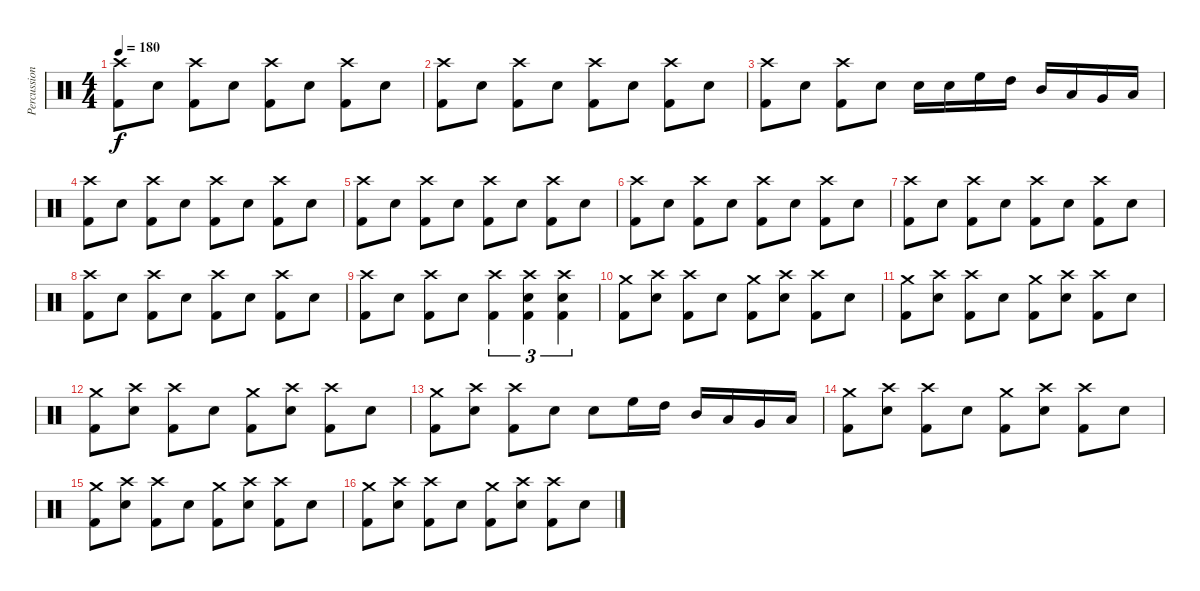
\track ("Percussion" "Percussion") {instrument percussion}
\staff {score}
\articulation defaults
\ts (4 4)
\tempo 180
\clef neutral
\ks c
("Crash high (hit)" "Kick (hit) 2").8{dy f} "Electric Snare (hit)".8 ("Crash high (hit)" "Kick (hit) 2").8 "Electric Snare (hit)".8 ("Crash high (hit)" "Kick (hit) 2").8 "Electric Snare (hit)".8 ("Crash high (hit)" "Kick (hit) 2").8 "Electric Snare (hit)".8 |
("Crash high (hit)" "Kick (hit) 2").8 "Electric Snare (hit)".8 ("Crash high (hit)" "Kick (hit) 2").8 "Electric Snare (hit)".8 ("Crash high (hit)" "Kick (hit) 2").8 "Electric Snare (hit)".8 ("Crash high (hit)" "Kick (hit) 2").8 "Electric Snare (hit)".8 |
("Crash high (hit)" "Kick (hit) 2").8 "Electric Snare (hit)".8 ("Crash high (hit)" "Kick (hit) 2").8 "Electric Snare (hit)".8 "Electric Snare (hit)".16 "Electric Snare (hit)".16 "High Floor Tom (hit)".16 "High Tom (hit)".16 "Mid Tom (hit)".16 "Low Tom (hit)".16 "Very Low Tom (hit)".16 "Low Floor Tom (hit)".16 |
("Crash high (hit)" "Kick (hit) 2").8 "Electric Snare (hit)".8 ("Crash high (hit)" "Kick (hit) 2").8 "Electric Snare (hit)".8 ("Crash high (hit)" "Kick (hit) 2").8 "Electric Snare (hit)".8 ("Crash high (hit)" "Kick (hit) 2").8 "Electric Snare (hit)".8 |
("Crash high (hit)" "Kick (hit) 2").8 "Electric Snare (hit)".8 ("Crash high (hit)" "Kick (hit) 2").8 "Electric Snare (hit)".8 ("Crash high (hit)" "Kick (hit) 2").8 "Electric Snare (hit)".8 ("Crash high (hit)" "Kick (hit) 2").8 "Electric Snare (hit)".8 |
("Crash high (hit)" "Kick (hit) 2").8 "Electric Snare (hit)".8 ("Crash high (hit)" "Kick (hit) 2").8 "Electric Snare (hit)".8 ("Crash high (hit)" "Kick (hit) 2").8 "Electric Snare (hit)".8 ("Crash high (hit)" "Kick (hit) 2").8 "Electric Snare (hit)".8 |
("Crash high (hit)" "Kick (hit) 2").8 "Electric Snare (hit)".8 ("Crash high (hit)" "Kick (hit) 2").8 "Electric Snare (hit)".8 ("Crash high (hit)" "Kick (hit) 2").8 "Electric Snare (hit)".8 ("Crash high (hit)" "Kick (hit) 2").8 "Electric Snare (hit)".8 |
("Crash high (hit)" "Kick (hit) 2").8 "Electric Snare (hit)".8 ("Crash high (hit)" "Kick (hit) 2").8 "Electric Snare (hit)".8 ("Crash high (hit)" "Kick (hit) 2").8 "Electric Snare (hit)".8 ("Crash high (hit)" "Kick (hit) 2").8 "Electric Snare (hit)".8 |
("Crash high (hit)" "Kick (hit) 2").8 "Electric Snare (hit)".8 ("Crash high (hit)" "Kick (hit) 2").8 "Electric Snare (hit)".8 ("Crash high (hit)" "Kick (hit) 2").4{tu (3 2)} ("Crash high (hit)" "Electric Snare (hit)" "Kick (hit) 2").4{tu (3 2)} ("Crash high (hit)" "Electric Snare (hit)" "Kick (hit) 2").4{tu (3 2)} |
("Crash medium (hit)" "Kick (hit) 2").8 ("Crash high (hit)" "Electric Snare (hit)").8 ("Crash high (hit)" "Kick (hit) 2").8 "Electric Snare (hit)".8 ("Crash medium (hit)" "Kick (hit) 2").8 ("Crash high (hit)" "Electric Snare (hit)").8 ("Crash high (hit)" "Kick (hit) 2").8 "Electric Snare (hit)".8 |
("Crash medium (hit)" "Kick (hit) 2").8 ("Crash high (hit)" "Electric Snare (hit)").8 ("Crash high (hit)" "Kick (hit) 2").8 "Electric Snare (hit)".8 ("Crash medium (hit)" "Kick (hit) 2").8 ("Crash high (hit)" "Electric Snare (hit)").8 ("Crash high (hit)" "Kick (hit) 2").8 "Electric Snare (hit)".8 |
("Crash medium (hit)" "Kick (hit) 2").8 ("Crash high (hit)" "Electric Snare (hit)").8 ("Crash high (hit)" "Kick (hit) 2").8 "Electric Snare (hit)".8 ("Crash medium (hit)" "Kick (hit) 2").8 ("Crash high (hit)" "Electric Snare (hit)").8 ("Crash high (hit)" "Kick (hit) 2").8 "Electric Snare (hit)".8 |
("Crash medium (hit)" "Kick (hit) 2").8 ("Crash high (hit)" "Electric Snare (hit)").8 ("Crash high (hit)" "Kick (hit) 2").8 "Electric Snare (hit)".8 "Electric Snare (hit)".8 "High Floor Tom (hit)".16 "High Tom (hit)".16 "Mid Tom (hit)".16 "Low Tom (hit)".16 "Very Low Tom (hit)".16 "Low Floor Tom (hit)".16 |
("Crash medium (hit)" "Kick (hit) 2").8 ("Crash high (hit)" "Electric Snare (hit)").8 ("Crash high (hit)" "Kick (hit) 2").8 "Electric Snare (hit)".8 ("Crash medium (hit)" "Kick (hit) 2").8 ("Crash high (hit)" "Electric Snare (hit)").8 ("Crash high (hit)" "Kick (hit) 2").8 "Electric Snare (hit)".8 |
("Crash medium (hit)" "Kick (hit) 2").8 ("Crash high (hit)" "Electric Snare (hit)").8 ("Crash high (hit)" "Kick (hit) 2").8 "Electric Snare (hit)".8 ("Crash medium (hit)" "Kick (hit) 2").8 ("Crash high (hit)" "Electric Snare (hit)").8 ("Crash high (hit)" "Kick (hit) 2").8 "Electric Snare (hit)".8 |
("Crash medium (hit)" "Kick (hit) 2").8 ("Crash high (hit)" "Electric Snare (hit)").8 ("Crash high (hit)" "Kick (hit) 2").8 "Electric Snare (hit)".8 ("Crash medium (hit)" "Kick (hit) 2").8 ("Crash high (hit)" "Electric Snare (hit)").8 ("Crash high (hit)" "Kick (hit) 2").8 "Electric Snare (hit)".8
